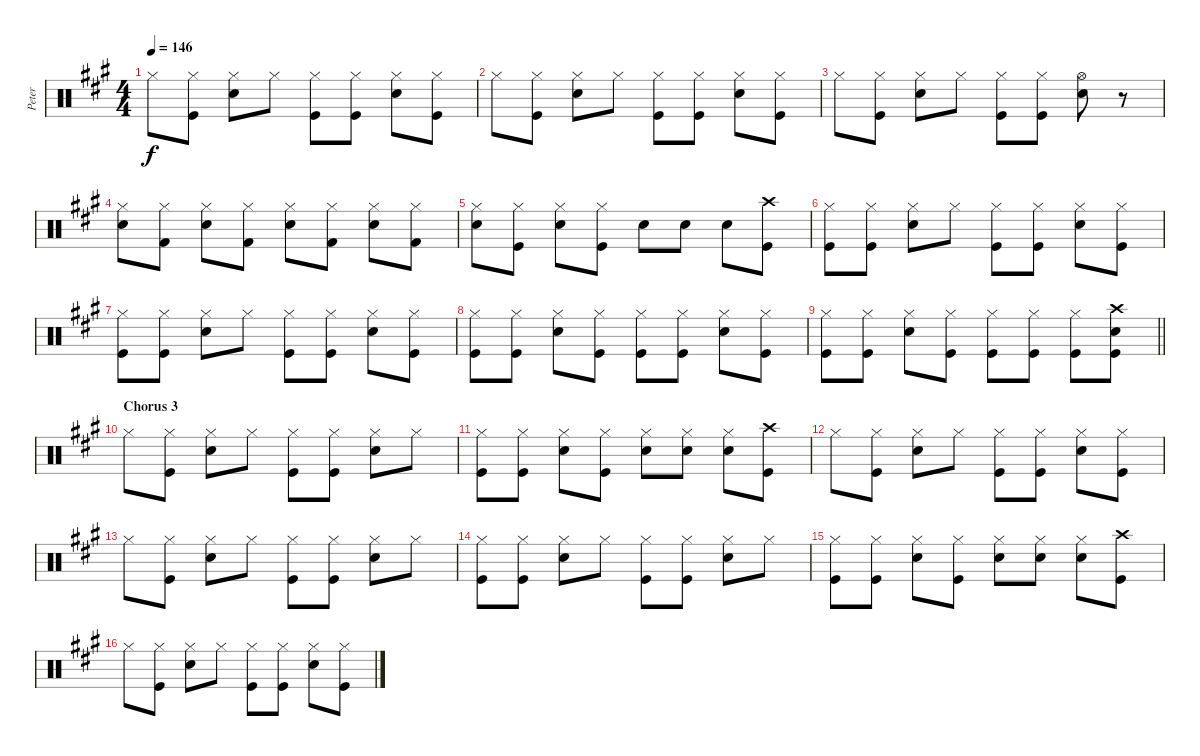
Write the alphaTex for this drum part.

\track ("Peter" "Peter") {instrument percussion}
\staff {score}
\articulation defaults
\ts (4 4)
\tempo 146
\clef neutral
\ks a "Hi-Hat (closed)".8{dy f}
("Hi-Hat (closed)" "Kick (hit)").8 ("Hi-Hat (closed)" "Snare (hit) 2").8 "Hi-Hat (closed)".8 ("Hi-Hat (closed)" "Kick (hit)").8 ("Hi-Hat (closed)" "Kick (hit)").8 ("Hi-Hat (closed)" "Snare (hit) 2").8 ("Hi-Hat (closed)" "Kick (hit)").8 |
"Hi-Hat (closed)".8 ("Hi-Hat (closed)" "Kick (hit)").8 ("Hi-Hat (closed)" "Snare (hit) 2").8 "Hi-Hat (closed)".8 ("Hi-Hat (closed)" "Kick (hit)").8 ("Hi-Hat (closed)" "Kick (hit)").8 ("Hi-Hat (closed)" "Snare (hit) 2").8 ("Hi-Hat (closed)" "Kick (hit)").8 |
"Hi-Hat (closed)".8 ("Hi-Hat (closed)" "Kick (hit)").8 ("Hi-Hat (closed)" "Snare (hit) 2").8 "Hi-Hat (closed)".8 ("Hi-Hat (closed)" "Kick (hit)").8 ("Hi-Hat (closed)" "Kick (hit)").8 ("Hi-Hat (open)" "Snare (hit) 2").8 r.8 |
("Hi-Hat (closed)" "Snare (hit) 2").8 ("Hi-Hat (closed)" "Kick (hit) 2").8 ("Hi-Hat (closed)" "Snare (hit) 2").8 ("Hi-Hat (closed)" "Kick (hit) 2").8 ("Hi-Hat (closed)" "Snare (hit) 2").8 ("Hi-Hat (closed)" "Kick (hit) 2").8 ("Hi-Hat (closed)" "Snare (hit) 2").8 ("Hi-Hat (closed)" "Kick (hit) 2").8 |
("Hi-Hat (closed)" "Snare (hit) 2").8 ("Hi-Hat (closed)" "Kick (hit)").8 ("Hi-Hat (closed)" "Snare (hit) 2").8 ("Hi-Hat (closed)" "Kick (hit)").8 "Snare (hit) 2".8 "Snare (hit) 2".8 "Snare (hit) 2".8 ("Crash high (hit)" "Kick (hit)").8 |
("Hi-Hat (closed)" "Kick (hit)").8 ("Hi-Hat (closed)" "Kick (hit)").8 ("Hi-Hat (closed)" "Snare (hit) 2").8 "Hi-Hat (closed)".8 ("Hi-Hat (closed)" "Kick (hit)").8 ("Hi-Hat (closed)" "Kick (hit)").8 ("Hi-Hat (closed)" "Snare (hit) 2").8 ("Hi-Hat (closed)" "Kick (hit)").8 |
("Hi-Hat (closed)" "Kick (hit)").8 ("Hi-Hat (closed)" "Kick (hit)").8 ("Hi-Hat (closed)" "Snare (hit) 2").8 "Hi-Hat (closed)".8 ("Hi-Hat (closed)" "Kick (hit)").8 ("Hi-Hat (closed)" "Kick (hit)").8 ("Hi-Hat (closed)" "Snare (hit) 2").8 ("Hi-Hat (closed)" "Kick (hit)").8 |
("Hi-Hat (closed)" "Kick (hit)").8 ("Hi-Hat (closed)" "Kick (hit)").8 ("Hi-Hat (closed)" "Snare (hit) 2").8 ("Hi-Hat (closed)" "Kick (hit)").8 ("Hi-Hat (closed)" "Kick (hit)").8 ("Hi-Hat (closed)" "Kick (hit)").8 ("Hi-Hat (closed)" "Snare (hit) 2").8 ("Hi-Hat (closed)" "Kick (hit)").8 |
\barLineRight lightlight
("Hi-Hat (closed)" "Kick (hit)").8 ("Hi-Hat (closed)" "Kick (hit)").8 ("Hi-Hat (closed)" "Snare (hit) 2").8 ("Hi-Hat (closed)" "Kick (hit)").8 ("Hi-Hat (closed)" "Kick (hit)").8 ("Hi-Hat (closed)" "Kick (hit)").8 ("Hi-Hat (closed)" "Kick (hit)").8 ("Crash high (hit)" "Snare (hit) 2" "Kick (hit)").8 |
\section ("" "Chorus 3")
"Hi-Hat (closed)".8 ("Hi-Hat (closed)" "Kick (hit)").8 ("Hi-Hat (closed)" "Snare (hit) 2").8 "Hi-Hat (closed)".8 ("Hi-Hat (closed)" "Kick (hit)").8 ("Hi-Hat (closed)" "Kick (hit)").8 ("Hi-Hat (closed)" "Snare (hit) 2").8 "Hi-Hat (closed)".8 |
("Hi-Hat (closed)" "Kick (hit)").8 ("Hi-Hat (closed)" "Kick (hit)").8 ("Hi-Hat (closed)" "Snare (hit) 2").8 ("Hi-Hat (closed)" "Kick (hit)").8 ("Hi-Hat (closed)" "Snare (hit) 2").8 ("Hi-Hat (closed)" "Snare (hit) 2").8 ("Hi-Hat (closed)" "Snare (hit) 2").8 ("Crash high (hit)" "Kick (hit)").8 |
"Hi-Hat (closed)".8 ("Hi-Hat (closed)" "Kick (hit)").8 ("Hi-Hat (closed)" "Snare (hit) 2").8 "Hi-Hat (closed)".8 ("Hi-Hat (closed)" "Kick (hit)").8 ("Hi-Hat (closed)" "Kick (hit)").8 ("Hi-Hat (closed)" "Snare (hit) 2").8 ("Hi-Hat (closed)" "Kick (hit)").8 |
"Hi-Hat (closed)".8 ("Hi-Hat (closed)" "Kick (hit)").8 ("Hi-Hat (closed)" "Snare (hit) 2").8 "Hi-Hat (closed)".8 ("Hi-Hat (closed)" "Kick (hit)").8 ("Hi-Hat (closed)" "Kick (hit)").8 ("Hi-Hat (closed)" "Snare (hit) 2").8 "Hi-Hat (closed)".8 |
("Hi-Hat (closed)" "Kick (hit)").8 ("Hi-Hat (closed)" "Kick (hit)").8 ("Hi-Hat (closed)" "Snare (hit) 2").8 "Hi-Hat (closed)".8 ("Hi-Hat (closed)" "Kick (hit)").8 ("Hi-Hat (closed)" "Kick (hit)").8 ("Hi-Hat (closed)" "Snare (hit) 2").8 "Hi-Hat (closed)".8 |
("Hi-Hat (closed)" "Kick (hit)").8 ("Hi-Hat (closed)" "Kick (hit)").8 ("Hi-Hat (closed)" "Snare (hit) 2").8 ("Hi-Hat (closed)" "Kick (hit)").8 ("Hi-Hat (closed)" "Snare (hit) 2").8 ("Hi-Hat (closed)" "Snare (hit) 2").8 ("Hi-Hat (closed)" "Snare (hit) 2").8 ("Crash high (hit)" "Kick (hit)").8 |
"Hi-Hat (closed)".8 ("Hi-Hat (closed)" "Kick (hit)").8 ("Hi-Hat (closed)" "Snare (hit) 2").8 "Hi-Hat (closed)".8 ("Hi-Hat (closed)" "Kick (hit)").8 ("Hi-Hat (closed)" "Kick (hit)").8 ("Hi-Hat (closed)" "Snare (hit) 2").8 ("Hi-Hat (closed)" "Kick (hit)").8
